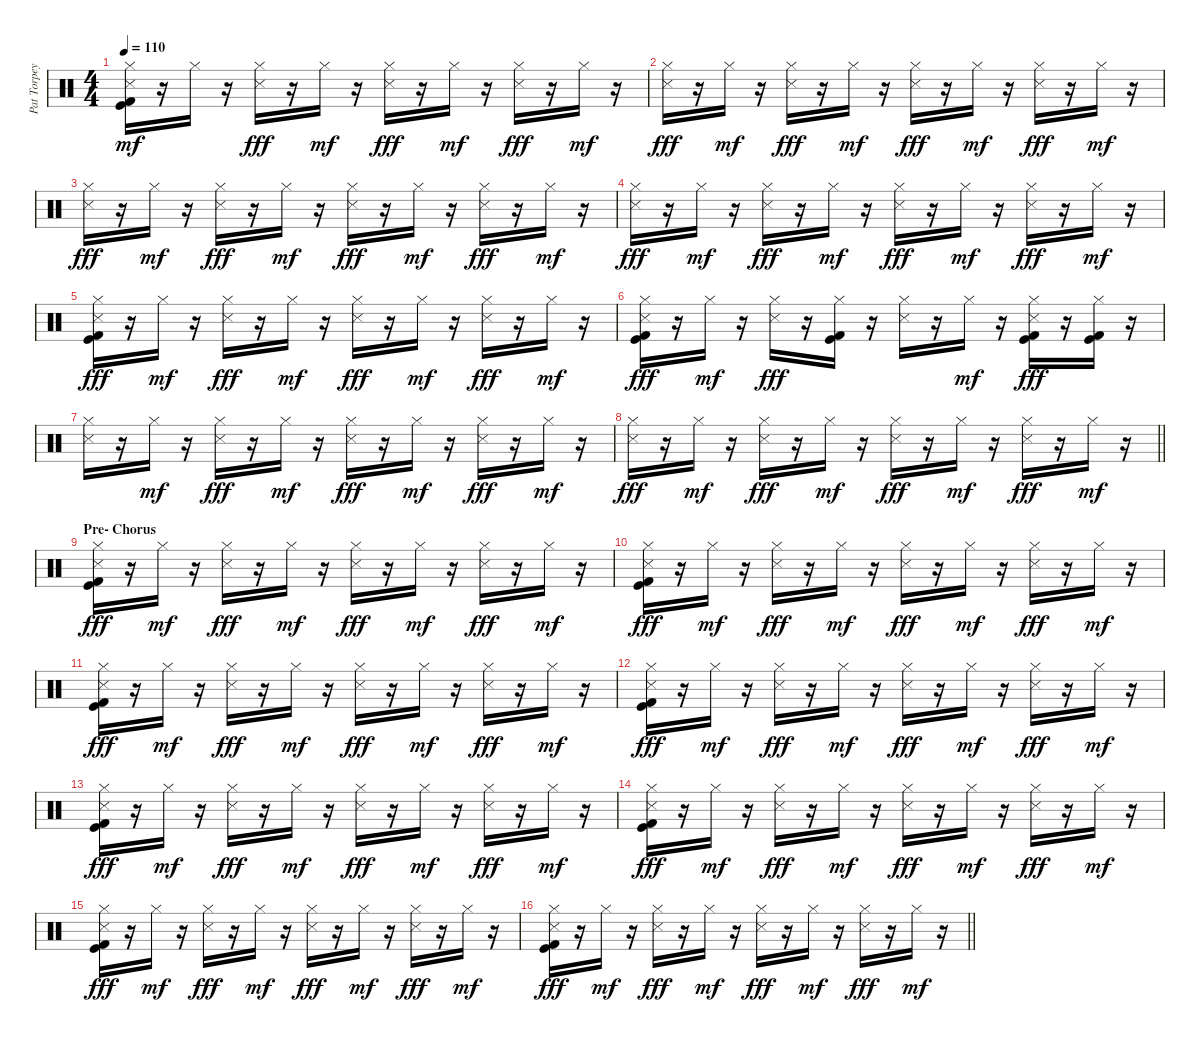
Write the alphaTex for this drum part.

\track ("Pat Torpey" "Pat Torpey") {instrument percussion}
\staff {score}
\articulation defaults
\ts (4 4)
\tempo 110
\clef neutral
\ks c
("Snare (side stick) 3" "Hi-Hat (closed)" "Kick (hit)" "Kick (hit) 2").16{dy mf} r.16 "Hi-Hat (closed)".16 r.16 ("Snare (side stick) 3" "Hi-Hat (closed)").16{dy fff} r.16 "Hi-Hat (closed)".16{dy mf} r.16 ("Snare (side stick) 3" "Hi-Hat (closed)").16{dy fff} r.16 "Hi-Hat (closed)".16{dy mf} r.16 ("Snare (side stick) 3" "Hi-Hat (closed)").16{dy fff} r.16 "Hi-Hat (closed)".16{dy mf} r.16 |
("Snare (side stick) 3" "Hi-Hat (closed)").16{dy fff} r.16 "Hi-Hat (closed)".16{dy mf} r.16 ("Snare (side stick) 3" "Hi-Hat (closed)").16{dy fff} r.16 "Hi-Hat (closed)".16{dy mf} r.16 ("Snare (side stick) 3" "Hi-Hat (closed)").16{dy fff} r.16 "Hi-Hat (closed)".16{dy mf} r.16 ("Snare (side stick) 3" "Hi-Hat (closed)").16{dy fff} r.16 "Hi-Hat (closed)".16{dy mf} r.16 |
("Snare (side stick) 3" "Hi-Hat (closed)").16{dy fff} r.16 "Hi-Hat (closed)".16{dy mf} r.16 ("Snare (side stick) 3" "Hi-Hat (closed)").16{dy fff} r.16 "Hi-Hat (closed)".16{dy mf} r.16 ("Snare (side stick) 3" "Hi-Hat (closed)").16{dy fff} r.16 "Hi-Hat (closed)".16{dy mf} r.16 ("Snare (side stick) 3" "Hi-Hat (closed)").16{dy fff} r.16 "Hi-Hat (closed)".16{dy mf} r.16 |
("Snare (side stick) 3" "Hi-Hat (closed)").16{dy fff} r.16 "Hi-Hat (closed)".16{dy mf} r.16 ("Snare (side stick) 3" "Hi-Hat (closed)").16{dy fff} r.16 "Hi-Hat (closed)".16{dy mf} r.16 ("Snare (side stick) 3" "Hi-Hat (closed)").16{dy fff} r.16 "Hi-Hat (closed)".16{dy mf} r.16 ("Snare (side stick) 3" "Hi-Hat (closed)").16{dy fff} r.16 "Hi-Hat (closed)".16{dy mf} r.16 |
("Snare (side stick) 3" "Hi-Hat (closed)" "Kick (hit)" "Kick (hit) 2").16{dy fff} r.16 "Hi-Hat (closed)".16{dy mf} r.16 ("Snare (side stick) 3" "Hi-Hat (closed)").16{dy fff} r.16 "Hi-Hat (closed)".16{dy mf} r.16 ("Snare (side stick) 3" "Hi-Hat (closed)").16{dy fff} r.16 "Hi-Hat (closed)".16{dy mf} r.16 ("Snare (side stick) 3" "Hi-Hat (closed)").16{dy fff} r.16 "Hi-Hat (closed)".16{dy mf} r.16 |
("Snare (side stick) 3" "Hi-Hat (closed)" "Kick (hit)" "Kick (hit) 2").16{dy fff} r.16 "Hi-Hat (closed)".16{dy mf} r.16 ("Snare (side stick) 3" "Hi-Hat (closed)").16{dy fff} r.16 ("Hi-Hat (closed)" "Kick (hit)" "Kick (hit) 2").16 r.16 ("Snare (side stick) 3" "Hi-Hat (closed)").16 r.16 "Hi-Hat (closed)".16{dy mf} r.16 ("Snare (side stick) 3" "Hi-Hat (closed)" "Kick (hit)" "Kick (hit) 2").16{dy fff} r.16 ("Hi-Hat (closed)" "Kick (hit)" "Kick (hit) 2").16 r.16 |
("Snare (side stick) 3" "Hi-Hat (closed)").16 r.16 "Hi-Hat (closed)".16{dy mf} r.16 ("Snare (side stick) 3" "Hi-Hat (closed)").16{dy fff} r.16 "Hi-Hat (closed)".16{dy mf} r.16 ("Snare (side stick) 3" "Hi-Hat (closed)").16{dy fff} r.16 "Hi-Hat (closed)".16{dy mf} r.16 ("Snare (side stick) 3" "Hi-Hat (closed)").16{dy fff} r.16 "Hi-Hat (closed)".16{dy mf} r.16 |
\barLineRight lightlight
("Snare (side stick) 3" "Hi-Hat (closed)").16{dy fff} r.16 "Hi-Hat (closed)".16{dy mf} r.16 ("Snare (side stick) 3" "Hi-Hat (closed)").16{dy fff} r.16 "Hi-Hat (closed)".16{dy mf} r.16 ("Snare (side stick) 3" "Hi-Hat (closed)").16{dy fff} r.16 "Hi-Hat (closed)".16{dy mf} r.16 ("Snare (side stick) 3" "Hi-Hat (closed)").16{dy fff} r.16 "Hi-Hat (closed)".16{dy mf} r.16 |
\section ("" "Pre- Chorus")
("Snare (side stick) 3" "Hi-Hat (closed)" "Kick (hit)" "Kick (hit) 2").16{dy fff} r.16 "Hi-Hat (closed)".16{dy mf} r.16 ("Snare (side stick) 3" "Hi-Hat (closed)").16{dy fff} r.16 "Hi-Hat (closed)".16{dy mf} r.16 ("Snare (side stick) 3" "Hi-Hat (closed)").16{dy fff} r.16 "Hi-Hat (closed)".16{dy mf} r.16 ("Snare (side stick) 3" "Hi-Hat (closed)").16{dy fff} r.16 "Hi-Hat (closed)".16{dy mf} r.16 |
("Snare (side stick) 3" "Hi-Hat (closed)" "Kick (hit)" "Kick (hit) 2").16{dy fff} r.16 "Hi-Hat (closed)".16{dy mf} r.16 ("Snare (side stick) 3" "Hi-Hat (closed)").16{dy fff} r.16 "Hi-Hat (closed)".16{dy mf} r.16 ("Snare (side stick) 3" "Hi-Hat (closed)").16{dy fff} r.16 "Hi-Hat (closed)".16{dy mf} r.16 ("Snare (side stick) 3" "Hi-Hat (closed)").16{dy fff} r.16 "Hi-Hat (closed)".16{dy mf} r.16 |
("Snare (side stick) 3" "Hi-Hat (closed)" "Kick (hit)" "Kick (hit) 2").16{dy fff} r.16 "Hi-Hat (closed)".16{dy mf} r.16 ("Snare (side stick) 3" "Hi-Hat (closed)").16{dy fff} r.16 "Hi-Hat (closed)".16{dy mf} r.16 ("Snare (side stick) 3" "Hi-Hat (closed)").16{dy fff} r.16 "Hi-Hat (closed)".16{dy mf} r.16 ("Snare (side stick) 3" "Hi-Hat (closed)").16{dy fff} r.16 "Hi-Hat (closed)".16{dy mf} r.16 |
("Snare (side stick) 3" "Hi-Hat (closed)" "Kick (hit)" "Kick (hit) 2").16{dy fff} r.16 "Hi-Hat (closed)".16{dy mf} r.16 ("Snare (side stick) 3" "Hi-Hat (closed)").16{dy fff} r.16 "Hi-Hat (closed)".16{dy mf} r.16 ("Snare (side stick) 3" "Hi-Hat (closed)").16{dy fff} r.16 "Hi-Hat (closed)".16{dy mf} r.16 ("Snare (side stick) 3" "Hi-Hat (closed)").16{dy fff} r.16 "Hi-Hat (closed)".16{dy mf} r.16 |
("Snare (side stick) 3" "Hi-Hat (closed)" "Kick (hit)" "Kick (hit) 2").16{dy fff} r.16 "Hi-Hat (closed)".16{dy mf} r.16 ("Snare (side stick) 3" "Hi-Hat (closed)").16{dy fff} r.16 "Hi-Hat (closed)".16{dy mf} r.16 ("Snare (side stick) 3" "Hi-Hat (closed)").16{dy fff} r.16 "Hi-Hat (closed)".16{dy mf} r.16 ("Snare (side stick) 3" "Hi-Hat (closed)").16{dy fff} r.16 "Hi-Hat (closed)".16{dy mf} r.16 |
("Snare (side stick) 3" "Hi-Hat (closed)" "Kick (hit)" "Kick (hit) 2").16{dy fff} r.16 "Hi-Hat (closed)".16{dy mf} r.16 ("Snare (side stick) 3" "Hi-Hat (closed)").16{dy fff} r.16 "Hi-Hat (closed)".16{dy mf} r.16 ("Snare (side stick) 3" "Hi-Hat (closed)").16{dy fff} r.16 "Hi-Hat (closed)".16{dy mf} r.16 ("Snare (side stick) 3" "Hi-Hat (closed)").16{dy fff} r.16 "Hi-Hat (closed)".16{dy mf} r.16 |
("Snare (side stick) 3" "Hi-Hat (closed)" "Kick (hit)" "Kick (hit) 2").16{dy fff} r.16 "Hi-Hat (closed)".16{dy mf} r.16 ("Snare (side stick) 3" "Hi-Hat (closed)").16{dy fff} r.16 "Hi-Hat (closed)".16{dy mf} r.16 ("Snare (side stick) 3" "Hi-Hat (closed)").16{dy fff} r.16 "Hi-Hat (closed)".16{dy mf} r.16 ("Snare (side stick) 3" "Hi-Hat (closed)").16{dy fff} r.16 "Hi-Hat (closed)".16{dy mf} r.16 |
\barLineRight lightlight
("Snare (side stick) 3" "Hi-Hat (closed)" "Kick (hit)" "Kick (hit) 2").16{dy fff} r.16 "Hi-Hat (closed)".16{dy mf} r.16 ("Snare (side stick) 3" "Hi-Hat (closed)").16{dy fff} r.16 "Hi-Hat (closed)".16{dy mf} r.16 ("Snare (side stick) 3" "Hi-Hat (closed)").16{dy fff} r.16 "Hi-Hat (closed)".16{dy mf} r.16 ("Snare (side stick) 3" "Hi-Hat (closed)").16{dy fff} r.16 "Hi-Hat (closed)".16{dy mf} r.16
